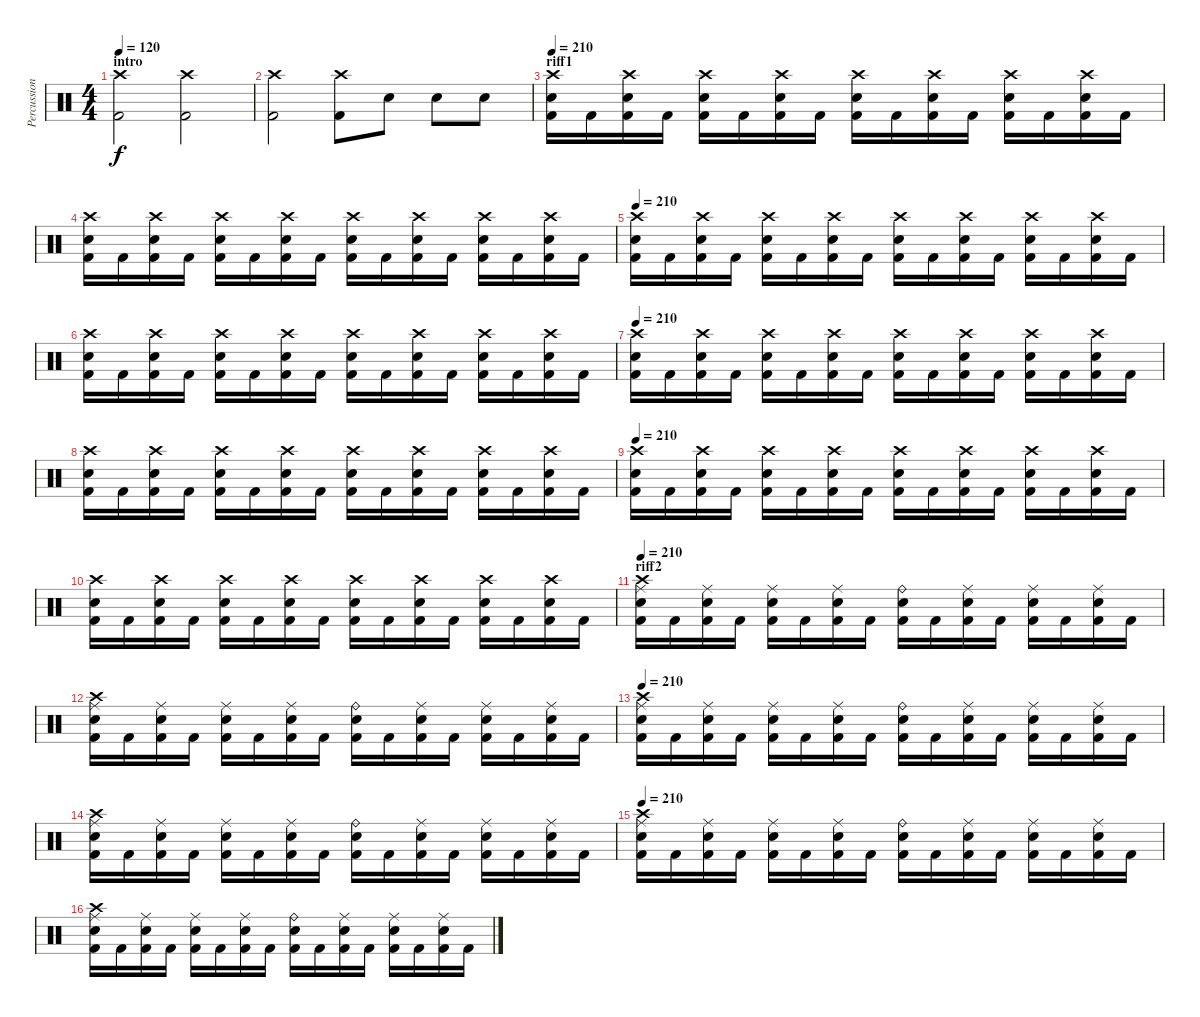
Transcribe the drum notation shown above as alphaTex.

\track ("Percussion" "Percussion") {instrument percussion}
\staff {score}
\articulation defaults
\ts (4 4)
\section ("" "intro")
\tempo 120
\tempo 150
\tempo 120
\clef neutral
\ks c
("Crash high (hit)" "Kick (hit) 2").2{dy f} ("Crash high (hit)" "Kick (hit) 2").2 |
("Crash high (hit)" "Kick (hit) 2").2 ("Crash high (hit)" "Kick (hit) 2").8 "Snare (hit) 2".8 "Snare (hit) 2".8 "Snare (hit) 2".8 |
\section ("" "riff1")
\tempo 210
("Crash high (hit)" "Snare (hit) 2" "Kick (hit) 2").16 "Kick (hit) 2".16 ("Crash high (hit)" "Snare (hit) 2" "Kick (hit) 2").16 "Kick (hit) 2".16 ("Crash high (hit)" "Snare (hit) 2" "Kick (hit) 2").16 "Kick (hit) 2".16 ("Crash high (hit)" "Snare (hit) 2" "Kick (hit) 2").16 "Kick (hit) 2".16 ("Crash high (hit)" "Snare (hit) 2" "Kick (hit) 2").16 "Kick (hit) 2".16 ("Crash high (hit)" "Snare (hit) 2" "Kick (hit) 2").16 "Kick (hit) 2".16 ("Crash high (hit)" "Snare (hit) 2" "Kick (hit) 2").16 "Kick (hit) 2".16 ("Crash high (hit)" "Snare (hit) 2" "Kick (hit) 2").16 "Kick (hit) 2".16 |
("Crash high (hit)" "Snare (hit) 2" "Kick (hit) 2").16 "Kick (hit) 2".16 ("Crash high (hit)" "Snare (hit) 2" "Kick (hit) 2").16 "Kick (hit) 2".16 ("Crash high (hit)" "Snare (hit) 2" "Kick (hit) 2").16 "Kick (hit) 2".16 ("Crash high (hit)" "Snare (hit) 2" "Kick (hit) 2").16 "Kick (hit) 2".16 ("Crash high (hit)" "Snare (hit) 2" "Kick (hit) 2").16 "Kick (hit) 2".16 ("Crash high (hit)" "Snare (hit) 2" "Kick (hit) 2").16 "Kick (hit) 2".16 ("Crash high (hit)" "Snare (hit) 2" "Kick (hit) 2").16 "Kick (hit) 2".16 ("Crash high (hit)" "Snare (hit) 2" "Kick (hit) 2").16 "Kick (hit) 2".16 |
\tempo 210
("Crash high (hit)" "Snare (hit) 2" "Kick (hit) 2").16 "Kick (hit) 2".16 ("Crash high (hit)" "Snare (hit) 2" "Kick (hit) 2").16 "Kick (hit) 2".16 ("Crash high (hit)" "Snare (hit) 2" "Kick (hit) 2").16 "Kick (hit) 2".16 ("Crash high (hit)" "Snare (hit) 2" "Kick (hit) 2").16 "Kick (hit) 2".16 ("Crash high (hit)" "Snare (hit) 2" "Kick (hit) 2").16 "Kick (hit) 2".16 ("Crash high (hit)" "Snare (hit) 2" "Kick (hit) 2").16 "Kick (hit) 2".16 ("Crash high (hit)" "Snare (hit) 2" "Kick (hit) 2").16 "Kick (hit) 2".16 ("Crash high (hit)" "Snare (hit) 2" "Kick (hit) 2").16 "Kick (hit) 2".16 |
("Crash high (hit)" "Snare (hit) 2" "Kick (hit) 2").16 "Kick (hit) 2".16 ("Crash high (hit)" "Snare (hit) 2" "Kick (hit) 2").16 "Kick (hit) 2".16 ("Crash high (hit)" "Snare (hit) 2" "Kick (hit) 2").16 "Kick (hit) 2".16 ("Crash high (hit)" "Snare (hit) 2" "Kick (hit) 2").16 "Kick (hit) 2".16 ("Crash high (hit)" "Snare (hit) 2" "Kick (hit) 2").16 "Kick (hit) 2".16 ("Crash high (hit)" "Snare (hit) 2" "Kick (hit) 2").16 "Kick (hit) 2".16 ("Crash high (hit)" "Snare (hit) 2" "Kick (hit) 2").16 "Kick (hit) 2".16 ("Crash high (hit)" "Snare (hit) 2" "Kick (hit) 2").16 "Kick (hit) 2".16 |
\tempo 210
("Crash high (hit)" "Snare (hit) 2" "Kick (hit) 2").16 "Kick (hit) 2".16 ("Crash high (hit)" "Snare (hit) 2" "Kick (hit) 2").16 "Kick (hit) 2".16 ("Crash high (hit)" "Snare (hit) 2" "Kick (hit) 2").16 "Kick (hit) 2".16 ("Crash high (hit)" "Snare (hit) 2" "Kick (hit) 2").16 "Kick (hit) 2".16 ("Crash high (hit)" "Snare (hit) 2" "Kick (hit) 2").16 "Kick (hit) 2".16 ("Crash high (hit)" "Snare (hit) 2" "Kick (hit) 2").16 "Kick (hit) 2".16 ("Crash high (hit)" "Snare (hit) 2" "Kick (hit) 2").16 "Kick (hit) 2".16 ("Crash high (hit)" "Snare (hit) 2" "Kick (hit) 2").16 "Kick (hit) 2".16 |
("Crash high (hit)" "Snare (hit) 2" "Kick (hit) 2").16 "Kick (hit) 2".16 ("Crash high (hit)" "Snare (hit) 2" "Kick (hit) 2").16 "Kick (hit) 2".16 ("Crash high (hit)" "Snare (hit) 2" "Kick (hit) 2").16 "Kick (hit) 2".16 ("Crash high (hit)" "Snare (hit) 2" "Kick (hit) 2").16 "Kick (hit) 2".16 ("Crash high (hit)" "Snare (hit) 2" "Kick (hit) 2").16 "Kick (hit) 2".16 ("Crash high (hit)" "Snare (hit) 2" "Kick (hit) 2").16 "Kick (hit) 2".16 ("Crash high (hit)" "Snare (hit) 2" "Kick (hit) 2").16 "Kick (hit) 2".16 ("Crash high (hit)" "Snare (hit) 2" "Kick (hit) 2").16 "Kick (hit) 2".16 |
\tempo 210
("Crash high (hit)" "Snare (hit) 2" "Kick (hit) 2").16 "Kick (hit) 2".16 ("Crash high (hit)" "Snare (hit) 2" "Kick (hit) 2").16 "Kick (hit) 2".16 ("Crash high (hit)" "Snare (hit) 2" "Kick (hit) 2").16 "Kick (hit) 2".16 ("Crash high (hit)" "Snare (hit) 2" "Kick (hit) 2").16 "Kick (hit) 2".16 ("Crash high (hit)" "Snare (hit) 2" "Kick (hit) 2").16 "Kick (hit) 2".16 ("Crash high (hit)" "Snare (hit) 2" "Kick (hit) 2").16 "Kick (hit) 2".16 ("Crash high (hit)" "Snare (hit) 2" "Kick (hit) 2").16 "Kick (hit) 2".16 ("Crash high (hit)" "Snare (hit) 2" "Kick (hit) 2").16 "Kick (hit) 2".16 |
("Crash high (hit)" "Snare (hit) 2" "Kick (hit) 2").16 "Kick (hit) 2".16 ("Crash high (hit)" "Snare (hit) 2" "Kick (hit) 2").16 "Kick (hit) 2".16 ("Crash high (hit)" "Snare (hit) 2" "Kick (hit) 2").16 "Kick (hit) 2".16 ("Crash high (hit)" "Snare (hit) 2" "Kick (hit) 2").16 "Kick (hit) 2".16 ("Crash high (hit)" "Snare (hit) 2" "Kick (hit) 2").16 "Kick (hit) 2".16 ("Crash high (hit)" "Snare (hit) 2" "Kick (hit) 2").16 "Kick (hit) 2".16 ("Crash high (hit)" "Snare (hit) 2" "Kick (hit) 2").16 "Kick (hit) 2".16 ("Crash high (hit)" "Snare (hit) 2" "Kick (hit) 2").16 "Kick (hit) 2".16 |
\section ("" "riff2")
\tempo 210
("Crash high (hit)" "Ride (middle)" "Snare (hit) 2" "Kick (hit) 2").16 "Kick (hit) 2".16 ("Ride (middle)" "Snare (hit) 2" "Kick (hit) 2").16 "Kick (hit) 2".16 ("Ride (middle)" "Snare (hit) 2" "Kick (hit) 2").16 "Kick (hit) 2".16 ("Ride (middle)" "Snare (hit) 2" "Kick (hit) 2").16 "Kick (hit) 2".16 ("Ride (bell)" "Snare (hit) 2" "Kick (hit) 2").16 "Kick (hit) 2".16 ("Ride (middle)" "Snare (hit) 2" "Kick (hit) 2").16 "Kick (hit) 2".16 ("Ride (middle)" "Snare (hit) 2" "Kick (hit) 2").16 "Kick (hit) 2".16 ("Ride (middle)" "Snare (hit) 2" "Kick (hit) 2").16 "Kick (hit) 2".16 |
("Crash high (hit)" "Ride (middle)" "Snare (hit) 2" "Kick (hit) 2").16 "Kick (hit) 2".16 ("Ride (middle)" "Snare (hit) 2" "Kick (hit) 2").16 "Kick (hit) 2".16 ("Ride (middle)" "Snare (hit) 2" "Kick (hit) 2").16 "Kick (hit) 2".16 ("Ride (middle)" "Snare (hit) 2" "Kick (hit) 2").16 "Kick (hit) 2".16 ("Ride (bell)" "Snare (hit) 2" "Kick (hit) 2").16 "Kick (hit) 2".16 ("Ride (middle)" "Snare (hit) 2" "Kick (hit) 2").16 "Kick (hit) 2".16 ("Ride (middle)" "Snare (hit) 2" "Kick (hit) 2").16 "Kick (hit) 2".16 ("Ride (middle)" "Snare (hit) 2" "Kick (hit) 2").16 "Kick (hit) 2".16 |
\tempo 210
("Crash high (hit)" "Ride (middle)" "Snare (hit) 2" "Kick (hit) 2").16 "Kick (hit) 2".16 ("Ride (middle)" "Snare (hit) 2" "Kick (hit) 2").16 "Kick (hit) 2".16 ("Ride (middle)" "Snare (hit) 2" "Kick (hit) 2").16 "Kick (hit) 2".16 ("Ride (middle)" "Snare (hit) 2" "Kick (hit) 2").16 "Kick (hit) 2".16 ("Ride (bell)" "Snare (hit) 2" "Kick (hit) 2").16 "Kick (hit) 2".16 ("Ride (middle)" "Snare (hit) 2" "Kick (hit) 2").16 "Kick (hit) 2".16 ("Ride (middle)" "Snare (hit) 2" "Kick (hit) 2").16 "Kick (hit) 2".16 ("Ride (middle)" "Snare (hit) 2" "Kick (hit) 2").16 "Kick (hit) 2".16 |
("Crash high (hit)" "Ride (middle)" "Snare (hit) 2" "Kick (hit) 2").16 "Kick (hit) 2".16 ("Ride (middle)" "Snare (hit) 2" "Kick (hit) 2").16 "Kick (hit) 2".16 ("Ride (middle)" "Snare (hit) 2" "Kick (hit) 2").16 "Kick (hit) 2".16 ("Ride (middle)" "Snare (hit) 2" "Kick (hit) 2").16 "Kick (hit) 2".16 ("Ride (bell)" "Snare (hit) 2" "Kick (hit) 2").16 "Kick (hit) 2".16 ("Ride (middle)" "Snare (hit) 2" "Kick (hit) 2").16 "Kick (hit) 2".16 ("Ride (middle)" "Snare (hit) 2" "Kick (hit) 2").16 "Kick (hit) 2".16 ("Ride (middle)" "Snare (hit) 2" "Kick (hit) 2").16 "Kick (hit) 2".16 |
\tempo 210
("Crash high (hit)" "Ride (middle)" "Snare (hit) 2" "Kick (hit) 2").16 "Kick (hit) 2".16 ("Ride (middle)" "Snare (hit) 2" "Kick (hit) 2").16 "Kick (hit) 2".16 ("Ride (middle)" "Snare (hit) 2" "Kick (hit) 2").16 "Kick (hit) 2".16 ("Ride (middle)" "Snare (hit) 2" "Kick (hit) 2").16 "Kick (hit) 2".16 ("Ride (bell)" "Snare (hit) 2" "Kick (hit) 2").16 "Kick (hit) 2".16 ("Ride (middle)" "Snare (hit) 2" "Kick (hit) 2").16 "Kick (hit) 2".16 ("Ride (middle)" "Snare (hit) 2" "Kick (hit) 2").16 "Kick (hit) 2".16 ("Ride (middle)" "Snare (hit) 2" "Kick (hit) 2").16 "Kick (hit) 2".16 |
("Crash high (hit)" "Ride (middle)" "Snare (hit) 2" "Kick (hit) 2").16 "Kick (hit) 2".16 ("Ride (middle)" "Snare (hit) 2" "Kick (hit) 2").16 "Kick (hit) 2".16 ("Ride (middle)" "Snare (hit) 2" "Kick (hit) 2").16 "Kick (hit) 2".16 ("Ride (middle)" "Snare (hit) 2" "Kick (hit) 2").16 "Kick (hit) 2".16 ("Ride (bell)" "Snare (hit) 2" "Kick (hit) 2").16 "Kick (hit) 2".16 ("Ride (middle)" "Snare (hit) 2" "Kick (hit) 2").16 "Kick (hit) 2".16 ("Ride (middle)" "Snare (hit) 2" "Kick (hit) 2").16 "Kick (hit) 2".16 ("Ride (middle)" "Snare (hit) 2" "Kick (hit) 2").16 "Kick (hit) 2".16
